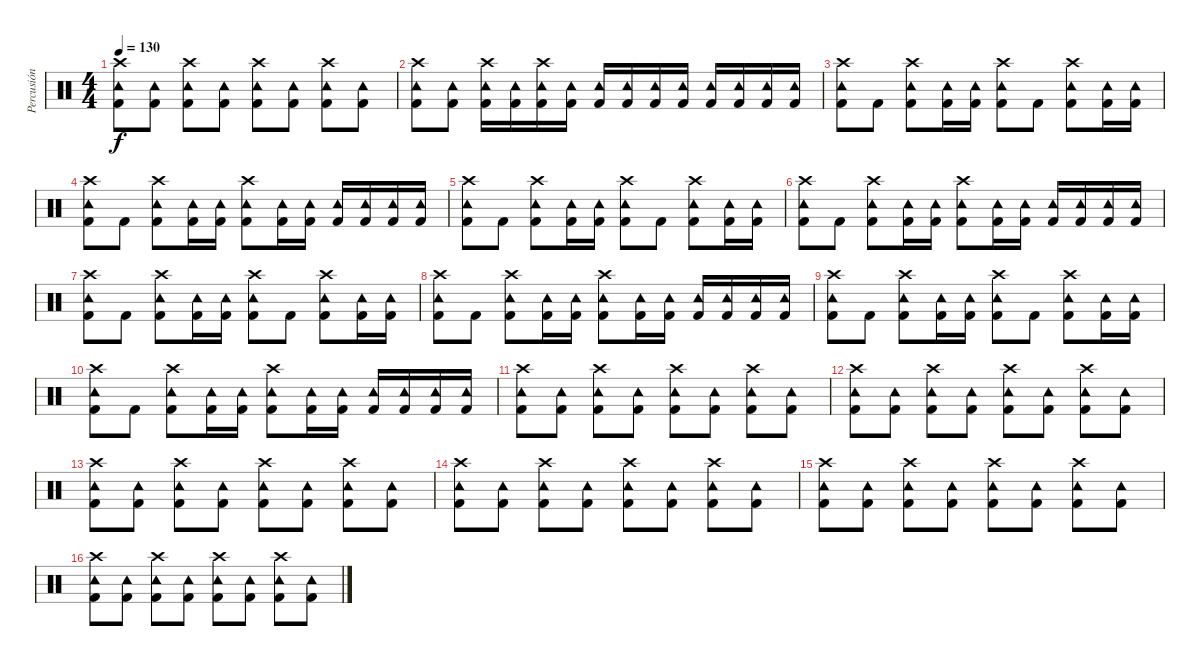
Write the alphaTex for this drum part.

\track ("Percusión" "Percusión") {instrument percussion}
\staff {score}
\articulation defaults
\ts (4 4)
\tempo 130
\clef neutral
\ks c
("Tambourine (hit)" "Kick (hit) 2" "Crash high (hit)").8{dy f} ("Tambourine (hit)" "Kick (hit) 2").8 ("Tambourine (hit)" "Kick (hit) 2" "Crash high (hit)").8 ("Tambourine (hit)" "Kick (hit) 2").8 ("Tambourine (hit)" "Kick (hit) 2" "Crash high (hit)").8 ("Tambourine (hit)" "Kick (hit) 2").8 ("Tambourine (hit)" "Kick (hit) 2" "Crash high (hit)").8 ("Tambourine (hit)" "Kick (hit) 2").8 |
("Tambourine (hit)" "Kick (hit) 2" "Crash high (hit)").8 ("Tambourine (hit)" "Kick (hit) 2").8 ("Tambourine (hit)" "Kick (hit) 2" "Crash high (hit)").16 ("Tambourine (hit)" "Kick (hit) 2").16 ("Tambourine (hit)" "Kick (hit) 2" "Crash high (hit)").16 ("Tambourine (hit)" "Kick (hit) 2").16 ("Tambourine (hit)" "Kick (hit) 2").16 ("Tambourine (hit)" "Kick (hit) 2").16 ("Tambourine (hit)" "Kick (hit) 2").16 ("Tambourine (hit)" "Kick (hit) 2").16 ("Tambourine (hit)" "Kick (hit) 2").16 ("Tambourine (hit)" "Kick (hit) 2").16 ("Tambourine (hit)" "Kick (hit) 2").16 ("Tambourine (hit)" "Kick (hit) 2").16 |
("Tambourine (hit)" "Kick (hit) 2" "Crash high (hit)").8 "Kick (hit) 2".8 ("Tambourine (hit)" "Kick (hit) 2" "Crash high (hit)").8 ("Tambourine (hit)" "Kick (hit) 2").16 ("Tambourine (hit)" "Kick (hit) 2").16 ("Tambourine (hit)" "Kick (hit) 2" "Crash high (hit)").8 "Kick (hit) 2".8 ("Tambourine (hit)" "Kick (hit) 2" "Crash high (hit)").8 ("Tambourine (hit)" "Kick (hit) 2").16 ("Tambourine (hit)" "Kick (hit) 2").16 |
("Tambourine (hit)" "Kick (hit) 2" "Crash high (hit)").8 "Kick (hit) 2".8 ("Tambourine (hit)" "Kick (hit) 2" "Crash high (hit)").8 ("Tambourine (hit)" "Kick (hit) 2").16 ("Tambourine (hit)" "Kick (hit) 2").16 ("Tambourine (hit)" "Kick (hit) 2" "Crash high (hit)").8 ("Tambourine (hit)" "Kick (hit) 2").16 ("Tambourine (hit)" "Kick (hit) 2").16 ("Tambourine (hit)" "Kick (hit) 2").16 ("Tambourine (hit)" "Kick (hit) 2").16 ("Tambourine (hit)" "Kick (hit) 2").16 ("Tambourine (hit)" "Kick (hit) 2").16 |
("Tambourine (hit)" "Kick (hit) 2" "Crash high (hit)").8 "Kick (hit) 2".8 ("Tambourine (hit)" "Kick (hit) 2" "Crash high (hit)").8 ("Tambourine (hit)" "Kick (hit) 2").16 ("Tambourine (hit)" "Kick (hit) 2").16 ("Tambourine (hit)" "Kick (hit) 2" "Crash high (hit)").8 "Kick (hit) 2".8 ("Tambourine (hit)" "Kick (hit) 2" "Crash high (hit)").8 ("Tambourine (hit)" "Kick (hit) 2").16 ("Tambourine (hit)" "Kick (hit) 2").16 |
("Tambourine (hit)" "Kick (hit) 2" "Crash high (hit)").8 "Kick (hit) 2".8 ("Tambourine (hit)" "Kick (hit) 2" "Crash high (hit)").8 ("Tambourine (hit)" "Kick (hit) 2").16 ("Tambourine (hit)" "Kick (hit) 2").16 ("Tambourine (hit)" "Kick (hit) 2" "Crash high (hit)").8 ("Tambourine (hit)" "Kick (hit) 2").16 ("Tambourine (hit)" "Kick (hit) 2").16 ("Tambourine (hit)" "Kick (hit) 2").16 ("Tambourine (hit)" "Kick (hit) 2").16 ("Tambourine (hit)" "Kick (hit) 2").16 ("Tambourine (hit)" "Kick (hit) 2").16 |
("Tambourine (hit)" "Kick (hit) 2" "Crash high (hit)").8 "Kick (hit) 2".8 ("Tambourine (hit)" "Kick (hit) 2" "Crash high (hit)").8 ("Tambourine (hit)" "Kick (hit) 2").16 ("Tambourine (hit)" "Kick (hit) 2").16 ("Tambourine (hit)" "Kick (hit) 2" "Crash high (hit)").8 "Kick (hit) 2".8 ("Tambourine (hit)" "Kick (hit) 2" "Crash high (hit)").8 ("Tambourine (hit)" "Kick (hit) 2").16 ("Tambourine (hit)" "Kick (hit) 2").16 |
("Tambourine (hit)" "Kick (hit) 2" "Crash high (hit)").8 "Kick (hit) 2".8 ("Tambourine (hit)" "Kick (hit) 2" "Crash high (hit)").8 ("Tambourine (hit)" "Kick (hit) 2").16 ("Tambourine (hit)" "Kick (hit) 2").16 ("Tambourine (hit)" "Kick (hit) 2" "Crash high (hit)").8 ("Tambourine (hit)" "Kick (hit) 2").16 ("Tambourine (hit)" "Kick (hit) 2").16 ("Tambourine (hit)" "Kick (hit) 2").16 ("Tambourine (hit)" "Kick (hit) 2").16 ("Tambourine (hit)" "Kick (hit) 2").16 ("Tambourine (hit)" "Kick (hit) 2").16 |
("Tambourine (hit)" "Kick (hit) 2" "Crash high (hit)").8 "Kick (hit) 2".8 ("Tambourine (hit)" "Kick (hit) 2" "Crash high (hit)").8 ("Tambourine (hit)" "Kick (hit) 2").16 ("Tambourine (hit)" "Kick (hit) 2").16 ("Tambourine (hit)" "Kick (hit) 2" "Crash high (hit)").8 "Kick (hit) 2".8 ("Tambourine (hit)" "Kick (hit) 2" "Crash high (hit)").8 ("Tambourine (hit)" "Kick (hit) 2").16 ("Tambourine (hit)" "Kick (hit) 2").16 |
("Tambourine (hit)" "Kick (hit) 2" "Crash high (hit)").8 "Kick (hit) 2".8 ("Tambourine (hit)" "Kick (hit) 2" "Crash high (hit)").8 ("Tambourine (hit)" "Kick (hit) 2").16 ("Tambourine (hit)" "Kick (hit) 2").16 ("Tambourine (hit)" "Kick (hit) 2" "Crash high (hit)").8 ("Tambourine (hit)" "Kick (hit) 2").16 ("Tambourine (hit)" "Kick (hit) 2").16 ("Tambourine (hit)" "Kick (hit) 2").16 ("Tambourine (hit)" "Kick (hit) 2").16 ("Tambourine (hit)" "Kick (hit) 2").16 ("Tambourine (hit)" "Kick (hit) 2").16 |
("Tambourine (hit)" "Kick (hit) 2" "Crash high (hit)").8 ("Tambourine (hit)" "Kick (hit) 2").8 ("Tambourine (hit)" "Kick (hit) 2" "Crash high (hit)").8 ("Tambourine (hit)" "Kick (hit) 2").8 ("Tambourine (hit)" "Kick (hit) 2" "Crash high (hit)").8 ("Tambourine (hit)" "Kick (hit) 2").8 ("Tambourine (hit)" "Kick (hit) 2" "Crash high (hit)").8 ("Tambourine (hit)" "Kick (hit) 2").8 |
("Tambourine (hit)" "Kick (hit) 2" "Crash high (hit)").8 ("Tambourine (hit)" "Kick (hit) 2").8 ("Tambourine (hit)" "Kick (hit) 2" "Crash high (hit)").8 ("Tambourine (hit)" "Kick (hit) 2").8 ("Tambourine (hit)" "Kick (hit) 2" "Crash high (hit)").8 ("Tambourine (hit)" "Kick (hit) 2").8 ("Tambourine (hit)" "Kick (hit) 2" "Crash high (hit)").8 ("Tambourine (hit)" "Kick (hit) 2").8 |
("Tambourine (hit)" "Kick (hit) 2" "Crash high (hit)").8 ("Tambourine (hit)" "Kick (hit) 2").8 ("Tambourine (hit)" "Kick (hit) 2" "Crash high (hit)").8 ("Tambourine (hit)" "Kick (hit) 2").8 ("Tambourine (hit)" "Kick (hit) 2" "Crash high (hit)").8 ("Tambourine (hit)" "Kick (hit) 2").8 ("Tambourine (hit)" "Kick (hit) 2" "Crash high (hit)").8 ("Tambourine (hit)" "Kick (hit) 2").8 |
("Tambourine (hit)" "Kick (hit) 2" "Crash high (hit)").8 ("Tambourine (hit)" "Kick (hit) 2").8 ("Tambourine (hit)" "Kick (hit) 2" "Crash high (hit)").8 ("Tambourine (hit)" "Kick (hit) 2").8 ("Tambourine (hit)" "Kick (hit) 2" "Crash high (hit)").8 ("Tambourine (hit)" "Kick (hit) 2").8 ("Tambourine (hit)" "Kick (hit) 2" "Crash high (hit)").8 ("Tambourine (hit)" "Kick (hit) 2").8 |
("Tambourine (hit)" "Kick (hit) 2" "Crash high (hit)").8 ("Tambourine (hit)" "Kick (hit) 2").8 ("Tambourine (hit)" "Kick (hit) 2" "Crash high (hit)").8 ("Tambourine (hit)" "Kick (hit) 2").8 ("Tambourine (hit)" "Kick (hit) 2" "Crash high (hit)").8 ("Tambourine (hit)" "Kick (hit) 2").8 ("Tambourine (hit)" "Kick (hit) 2" "Crash high (hit)").8 ("Tambourine (hit)" "Kick (hit) 2").8 |
("Tambourine (hit)" "Kick (hit) 2" "Crash high (hit)").8 ("Tambourine (hit)" "Kick (hit) 2").8 ("Tambourine (hit)" "Kick (hit) 2" "Crash high (hit)").8 ("Tambourine (hit)" "Kick (hit) 2").8 ("Tambourine (hit)" "Kick (hit) 2" "Crash high (hit)").8 ("Tambourine (hit)" "Kick (hit) 2").8 ("Tambourine (hit)" "Kick (hit) 2" "Crash high (hit)").8 ("Tambourine (hit)" "Kick (hit) 2").8
